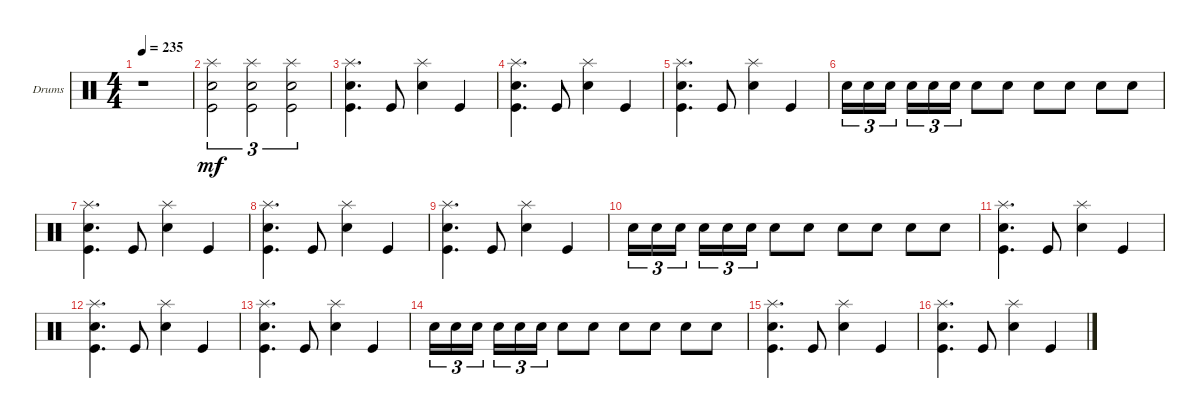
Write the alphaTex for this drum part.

\defaultSystemsLayout 4
\bracketExtendMode groupsimilarinstruments
\firstSystemTrackNameOrientation horizontal
\otherSystemsTrackNameOrientation horizontal
\track ("Drumkit" "Drums") {instrument percussion}
\staff {score}
\articulation defaults
\ts (4 4)
\tempo 235
\clef neutral
\ks c
r.1{dy mf} |
("Kick (hit)" "Snare (hit) 2" "Splash (hit)").2{tu (3 2)} ("Kick (hit)" "Snare (hit) 2" "Splash (hit)").2{tu (3 2)} ("Kick (hit)" "Snare (hit) 2" "Splash (hit)").2{tu (3 2)} |
("Kick (hit)" "Snare (hit) 2" "Splash (hit)").4{d} "Kick (hit)".8 ("Snare (hit) 2" "Splash (hit)").4 "Kick (hit)".4 |
("Kick (hit)" "Snare (hit) 2" "Splash (hit)").4{d} "Kick (hit)".8 ("Snare (hit) 2" "Splash (hit)").4 "Kick (hit)".4 |
("Kick (hit)" "Snare (hit) 2" "Splash (hit)").4{d} "Kick (hit)".8 ("Snare (hit) 2" "Splash (hit)").4 "Kick (hit)".4 |
"Snare (hit) 2".16{tu (3 2)} "Snare (hit) 2".16{tu (3 2)} "Snare (hit) 2".16{tu (3 2)} "Snare (hit) 2".16{tu (3 2)} "Snare (hit) 2".16{tu (3 2)} "Snare (hit) 2".16{tu (3 2)} "Snare (hit) 2".8 "Snare (hit) 2".8 "Snare (hit) 2".8 "Snare (hit) 2".8 "Snare (hit) 2".8 "Snare (hit) 2".8 |
("Kick (hit)" "Snare (hit) 2" "Splash (hit)").4{d} "Kick (hit)".8 ("Snare (hit) 2" "Splash (hit)").4 "Kick (hit)".4 |
("Kick (hit)" "Snare (hit) 2" "Splash (hit)").4{d} "Kick (hit)".8 ("Snare (hit) 2" "Splash (hit)").4 "Kick (hit)".4 |
("Kick (hit)" "Snare (hit) 2" "Splash (hit)").4{d} "Kick (hit)".8 ("Snare (hit) 2" "Splash (hit)").4 "Kick (hit)".4 |
"Snare (hit) 2".16{tu (3 2)} "Snare (hit) 2".16{tu (3 2)} "Snare (hit) 2".16{tu (3 2)} "Snare (hit) 2".16{tu (3 2)} "Snare (hit) 2".16{tu (3 2)} "Snare (hit) 2".16{tu (3 2)} "Snare (hit) 2".8 "Snare (hit) 2".8 "Snare (hit) 2".8 "Snare (hit) 2".8 "Snare (hit) 2".8 "Snare (hit) 2".8 |
("Kick (hit)" "Snare (hit) 2" "Splash (hit)").4{d} "Kick (hit)".8 ("Snare (hit) 2" "Splash (hit)").4 "Kick (hit)".4 |
("Kick (hit)" "Snare (hit) 2" "Splash (hit)").4{d} "Kick (hit)".8 ("Snare (hit) 2" "Splash (hit)").4 "Kick (hit)".4 |
("Kick (hit)" "Snare (hit) 2" "Splash (hit)").4{d} "Kick (hit)".8 ("Snare (hit) 2" "Splash (hit)").4 "Kick (hit)".4 |
"Snare (hit) 2".16{tu (3 2)} "Snare (hit) 2".16{tu (3 2)} "Snare (hit) 2".16{tu (3 2)} "Snare (hit) 2".16{tu (3 2)} "Snare (hit) 2".16{tu (3 2)} "Snare (hit) 2".16{tu (3 2)} "Snare (hit) 2".8 "Snare (hit) 2".8 "Snare (hit) 2".8 "Snare (hit) 2".8 "Snare (hit) 2".8 "Snare (hit) 2".8 |
("Kick (hit)" "Snare (hit) 2" "Splash (hit)").4{d} "Kick (hit)".8 ("Snare (hit) 2" "Splash (hit)").4 "Kick (hit)".4 |
("Kick (hit)" "Snare (hit) 2" "Splash (hit)").4{d} "Kick (hit)".8 ("Snare (hit) 2" "Splash (hit)").4 "Kick (hit)".4
